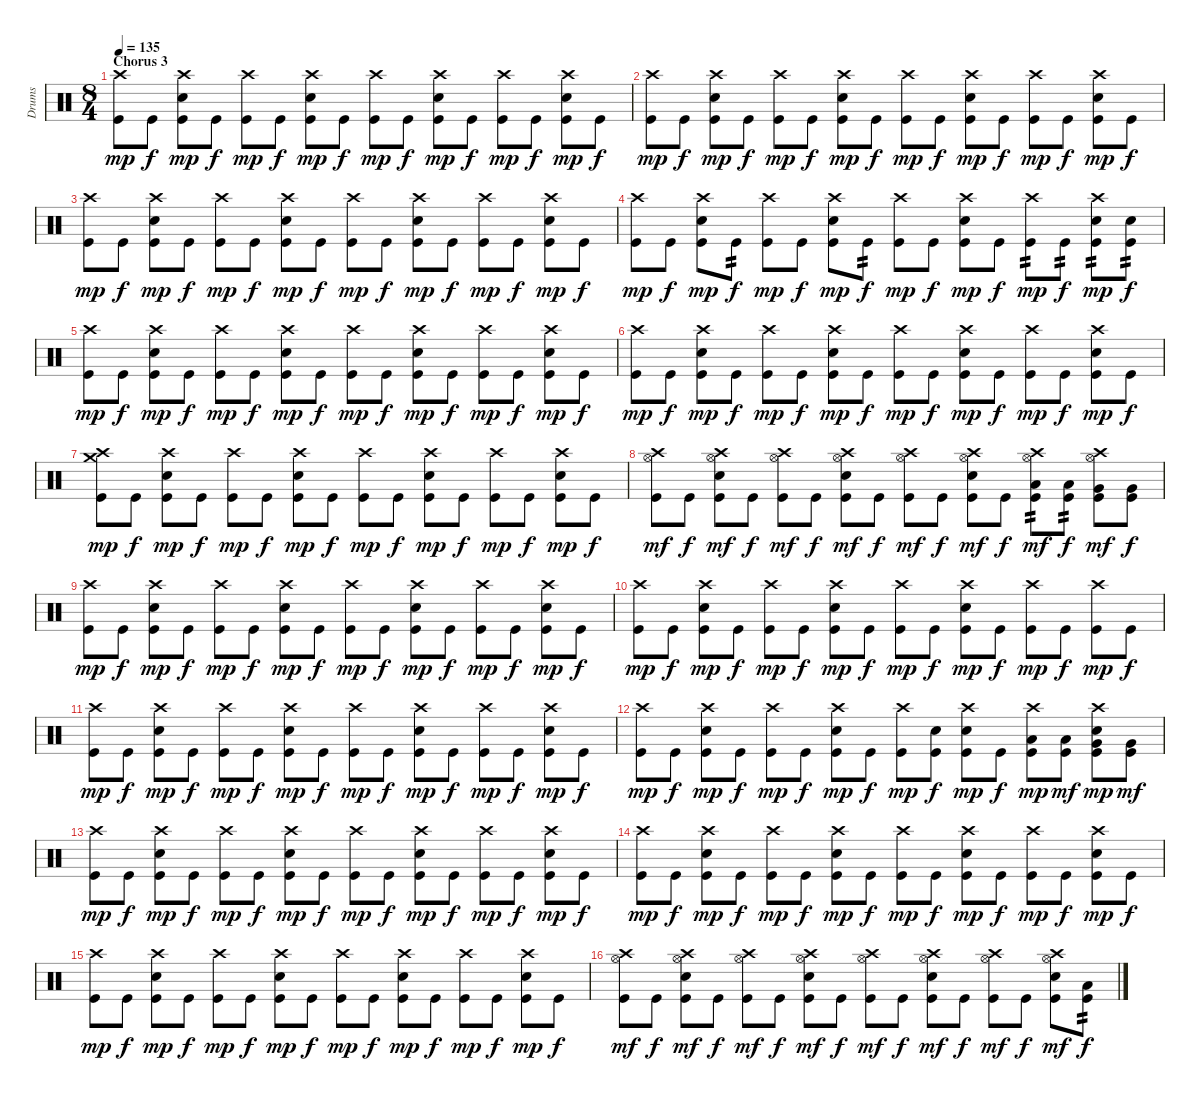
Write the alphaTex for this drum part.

\track ("Drums" "Drums") {instrument percussion}
\staff {score}
\articulation defaults
\ts (8 4)
\section ("" "Chorus 3")
\tempo 135
\clef neutral
\ks c
("Crash high (hit)" "Kick (hit)").8{dy mp} "Kick (hit)".8{dy f} ("Crash high (hit)" "Electric Snare (hit)" "Kick (hit)").8{dy mp} "Kick (hit)".8{dy f} ("Crash high (hit)" "Kick (hit)").8{dy mp} "Kick (hit)".8{dy f} ("Crash high (hit)" "Electric Snare (hit)" "Kick (hit)").8{dy mp} "Kick (hit)".8{dy f} ("Crash high (hit)" "Kick (hit)").8{dy mp} "Kick (hit)".8{dy f} ("Crash high (hit)" "Electric Snare (hit)" "Kick (hit)").8{dy mp} "Kick (hit)".8{dy f} ("Crash high (hit)" "Kick (hit)").8{dy mp} "Kick (hit)".8{dy f} ("Crash high (hit)" "Electric Snare (hit)" "Kick (hit)").8{dy mp} "Kick (hit)".8{dy f} |
("Crash high (hit)" "Kick (hit)").8{dy mp} "Kick (hit)".8{dy f} ("Crash high (hit)" "Electric Snare (hit)" "Kick (hit)").8{dy mp} "Kick (hit)".8{dy f} ("Crash high (hit)" "Kick (hit)").8{dy mp} "Kick (hit)".8{dy f} ("Crash high (hit)" "Electric Snare (hit)" "Kick (hit)").8{dy mp} "Kick (hit)".8{dy f} ("Crash high (hit)" "Kick (hit)").8{dy mp} "Kick (hit)".8{dy f} ("Crash high (hit)" "Electric Snare (hit)" "Kick (hit)").8{dy mp} "Kick (hit)".8{dy f} ("Crash high (hit)" "Kick (hit)").8{dy mp} "Kick (hit)".8{dy f} ("Crash high (hit)" "Electric Snare (hit)" "Kick (hit)").8{dy mp} "Kick (hit)".8{dy f} |
("Crash high (hit)" "Kick (hit)").8{dy mp} "Kick (hit)".8{dy f} ("Crash high (hit)" "Electric Snare (hit)" "Kick (hit)").8{dy mp} "Kick (hit)".8{dy f} ("Crash high (hit)" "Kick (hit)").8{dy mp} "Kick (hit)".8{dy f} ("Crash high (hit)" "Electric Snare (hit)" "Kick (hit)").8{dy mp} "Kick (hit)".8{dy f} ("Crash high (hit)" "Kick (hit)").8{dy mp} "Kick (hit)".8{dy f} ("Crash high (hit)" "Electric Snare (hit)" "Kick (hit)").8{dy mp} "Kick (hit)".8{dy f} ("Crash high (hit)" "Kick (hit)").8{dy mp} "Kick (hit)".8{dy f} ("Crash high (hit)" "Electric Snare (hit)" "Kick (hit)").8{dy mp} "Kick (hit)".8{dy f} |
("Crash high (hit)" "Kick (hit)").8{dy mp} "Kick (hit)".8{dy f} ("Crash high (hit)" "Electric Snare (hit)" "Kick (hit)").8{dy mp} "Kick (hit)".8{tp 2 dy f} ("Crash high (hit)" "Kick (hit)").8{dy mp} "Kick (hit)".8{dy f} ("Crash high (hit)" "Electric Snare (hit)" "Kick (hit)").8{dy mp} "Kick (hit)".8{tp 2 dy f} ("Crash high (hit)" "Kick (hit)").8{dy mp} "Kick (hit)".8{dy f} ("Crash high (hit)" "Electric Snare (hit)" "Kick (hit)").8{dy mp} "Kick (hit)".8{dy f} ("Crash high (hit)" "Kick (hit)").8{tp 2 dy mp} "Kick (hit)".8{tp 2 dy f} ("Crash high (hit)" "Electric Snare (hit)" "Kick (hit)").8{tp 2 dy mp} ("Electric Snare (hit)" "Kick (hit)").8{tp 2 dy f} |
("Crash high (hit)" "Kick (hit)").8{dy mp} "Kick (hit)".8{dy f} ("Crash high (hit)" "Electric Snare (hit)" "Kick (hit)").8{dy mp} "Kick (hit)".8{dy f} ("Crash high (hit)" "Kick (hit)").8{dy mp} "Kick (hit)".8{dy f} ("Crash high (hit)" "Electric Snare (hit)" "Kick (hit)").8{dy mp} "Kick (hit)".8{dy f} ("Crash high (hit)" "Kick (hit)").8{dy mp} "Kick (hit)".8{dy f} ("Crash high (hit)" "Electric Snare (hit)" "Kick (hit)").8{dy mp} "Kick (hit)".8{dy f} ("Crash high (hit)" "Kick (hit)").8{dy mp} "Kick (hit)".8{dy f} ("Crash high (hit)" "Electric Snare (hit)" "Kick (hit)").8{dy mp} "Kick (hit)".8{dy f} |
("Crash high (hit)" "Kick (hit)").8{dy mp} "Kick (hit)".8{dy f} ("Crash high (hit)" "Electric Snare (hit)" "Kick (hit)").8{dy mp} "Kick (hit)".8{dy f} ("Crash high (hit)" "Kick (hit)").8{dy mp} "Kick (hit)".8{dy f} ("Crash high (hit)" "Electric Snare (hit)" "Kick (hit)").8{dy mp} "Kick (hit)".8{dy f} ("Crash high (hit)" "Kick (hit)").8{dy mp} "Kick (hit)".8{dy f} ("Crash high (hit)" "Electric Snare (hit)" "Kick (hit)").8{dy mp} "Kick (hit)".8{dy f} ("Crash high (hit)" "Kick (hit)").8{dy mp} "Kick (hit)".8{dy f} ("Crash high (hit)" "Electric Snare (hit)" "Kick (hit)").8{dy mp} "Kick (hit)".8{dy f} |
("Crash high (hit)" "Crash medium (hit)" "Kick (hit)").8{dy mp} "Kick (hit)".8{dy f} ("Crash high (hit)" "Electric Snare (hit)" "Kick (hit)").8{dy mp} "Kick (hit)".8{dy f} ("Crash high (hit)" "Kick (hit)").8{dy mp} "Kick (hit)".8{dy f} ("Crash high (hit)" "Electric Snare (hit)" "Kick (hit)").8{dy mp} "Kick (hit)".8{dy f} ("Crash high (hit)" "Kick (hit)").8{dy mp} "Kick (hit)".8{dy f} ("Crash high (hit)" "Electric Snare (hit)" "Kick (hit)").8{dy mp} "Kick (hit)".8{dy f} ("Crash high (hit)" "Kick (hit)").8{dy mp} "Kick (hit)".8{dy f} ("Crash high (hit)" "Electric Snare (hit)" "Kick (hit)").8{dy mp} "Kick (hit)".8{dy f} |
("Crash high (hit)" "Hi-Hat (open)" "Kick (hit)").8{dy mf} "Kick (hit)".8{dy f} ("Crash high (hit)" "Hi-Hat (open)" "Electric Snare (hit)" "Kick (hit)").8{dy mf} "Kick (hit)".8{dy f} ("Crash high (hit)" "Hi-Hat (open)" "Kick (hit)").8{dy mf} "Kick (hit)".8{dy f} ("Crash high (hit)" "Hi-Hat (open)" "Electric Snare (hit)" "Kick (hit)").8{dy mf} "Kick (hit)".8{dy f} ("Crash high (hit)" "Hi-Hat (open)" "Kick (hit)").8{dy mf} "Kick (hit)".8{dy f} ("Crash high (hit)" "Hi-Hat (open)" "Electric Snare (hit)" "Kick (hit)").8{dy mf} "Kick (hit)".8{dy f} ("Crash high (hit)" "Hi-Hat (open)" "Low Tom (hit)" "Kick (hit)").8{tp 2 dy mf} ("Low Tom (hit)" "Kick (hit)").8{tp 2 dy f} ("Crash high (hit)" "Hi-Hat (open)" "Very Low Tom (hit)" "Kick (hit)").8{dy mf} ("Very Low Tom (hit)" "Kick (hit)").8{dy f} |
("Crash high (hit)" "Kick (hit)").8{dy mp} "Kick (hit)".8{dy f} ("Crash high (hit)" "Electric Snare (hit)" "Kick (hit)").8{dy mp} "Kick (hit)".8{dy f} ("Crash high (hit)" "Kick (hit)").8{dy mp} "Kick (hit)".8{dy f} ("Crash high (hit)" "Electric Snare (hit)" "Kick (hit)").8{dy mp} "Kick (hit)".8{dy f} ("Crash high (hit)" "Kick (hit)").8{dy mp} "Kick (hit)".8{dy f} ("Crash high (hit)" "Electric Snare (hit)" "Kick (hit)").8{dy mp} "Kick (hit)".8{dy f} ("Crash high (hit)" "Kick (hit)").8{dy mp} "Kick (hit)".8{dy f} ("Crash high (hit)" "Electric Snare (hit)" "Kick (hit)").8{dy mp} "Kick (hit)".8{dy f} |
("Crash high (hit)" "Kick (hit)").8{dy mp} "Kick (hit)".8{dy f} ("Crash high (hit)" "Electric Snare (hit)" "Kick (hit)").8{dy mp} "Kick (hit)".8{dy f} ("Crash high (hit)" "Kick (hit)").8{dy mp} "Kick (hit)".8{dy f} ("Crash high (hit)" "Electric Snare (hit)" "Kick (hit)").8{dy mp} "Kick (hit)".8{dy f} ("Crash high (hit)" "Kick (hit)").8{dy mp} "Kick (hit)".8{dy f} ("Crash high (hit)" "Electric Snare (hit)" "Kick (hit)").8{dy mp} "Kick (hit)".8{dy f} ("Crash high (hit)" "Kick (hit)").8{dy mp} "Kick (hit)".8{dy f} ("Crash high (hit)" "Kick (hit)").8{dy mp} "Kick (hit)".8{dy f} |
("Crash high (hit)" "Kick (hit)").8{dy mp} "Kick (hit)".8{dy f} ("Crash high (hit)" "Electric Snare (hit)" "Kick (hit)").8{dy mp} "Kick (hit)".8{dy f} ("Crash high (hit)" "Kick (hit)").8{dy mp} "Kick (hit)".8{dy f} ("Crash high (hit)" "Electric Snare (hit)" "Kick (hit)").8{dy mp} "Kick (hit)".8{dy f} ("Crash high (hit)" "Kick (hit)").8{dy mp} "Kick (hit)".8{dy f} ("Crash high (hit)" "Electric Snare (hit)" "Kick (hit)").8{dy mp} "Kick (hit)".8{dy f} ("Crash high (hit)" "Kick (hit)").8{dy mp} "Kick (hit)".8{dy f} ("Crash high (hit)" "Electric Snare (hit)" "Kick (hit)").8{dy mp} "Kick (hit)".8{dy f} |
("Crash high (hit)" "Kick (hit)").8{dy mp} "Kick (hit)".8{dy f} ("Crash high (hit)" "Electric Snare (hit)" "Kick (hit)").8{dy mp} "Kick (hit)".8{dy f} ("Crash high (hit)" "Kick (hit)").8{dy mp} "Kick (hit)".8{dy f} ("Crash high (hit)" "Electric Snare (hit)" "Kick (hit)").8{dy mp} "Kick (hit)".8{dy f} ("Crash high (hit)" "Kick (hit)").8{dy mp} ("Electric Snare (hit)" "Kick (hit)").8{dy f} ("Crash high (hit)" "Electric Snare (hit)" "Kick (hit)").8{dy mp} "Kick (hit)".8{dy f} ("Crash high (hit)" "Low Tom (hit)" "Kick (hit)").8{dy mp} ("Low Tom (hit)" "Kick (hit)").8{dy mf} ("Crash high (hit)" "Very Low Tom (hit)" "Electric Snare (hit)" "Kick (hit)").8{dy mp} ("Very Low Tom (hit)" "Kick (hit)").8{dy mf} |
("Crash high (hit)" "Kick (hit)").8{dy mp} "Kick (hit)".8{dy f} ("Crash high (hit)" "Electric Snare (hit)" "Kick (hit)").8{dy mp} "Kick (hit)".8{dy f} ("Crash high (hit)" "Kick (hit)").8{dy mp} "Kick (hit)".8{dy f} ("Crash high (hit)" "Electric Snare (hit)" "Kick (hit)").8{dy mp} "Kick (hit)".8{dy f} ("Crash high (hit)" "Kick (hit)").8{dy mp} "Kick (hit)".8{dy f} ("Crash high (hit)" "Electric Snare (hit)" "Kick (hit)").8{dy mp} "Kick (hit)".8{dy f} ("Crash high (hit)" "Kick (hit)").8{dy mp} "Kick (hit)".8{dy f} ("Crash high (hit)" "Electric Snare (hit)" "Kick (hit)").8{dy mp} "Kick (hit)".8{dy f} |
("Crash high (hit)" "Kick (hit)").8{dy mp} "Kick (hit)".8{dy f} ("Crash high (hit)" "Electric Snare (hit)" "Kick (hit)").8{dy mp} "Kick (hit)".8{dy f} ("Crash high (hit)" "Kick (hit)").8{dy mp} "Kick (hit)".8{dy f} ("Crash high (hit)" "Electric Snare (hit)" "Kick (hit)").8{dy mp} "Kick (hit)".8{dy f} ("Crash high (hit)" "Kick (hit)").8{dy mp} "Kick (hit)".8{dy f} ("Crash high (hit)" "Electric Snare (hit)" "Kick (hit)").8{dy mp} "Kick (hit)".8{dy f} ("Crash high (hit)" "Kick (hit)").8{dy mp} "Kick (hit)".8{dy f} ("Crash high (hit)" "Electric Snare (hit)" "Kick (hit)").8{dy mp} "Kick (hit)".8{dy f} |
("Crash high (hit)" "Kick (hit)").8{dy mp} "Kick (hit)".8{dy f} ("Crash high (hit)" "Electric Snare (hit)" "Kick (hit)").8{dy mp} "Kick (hit)".8{dy f} ("Crash high (hit)" "Kick (hit)").8{dy mp} "Kick (hit)".8{dy f} ("Crash high (hit)" "Electric Snare (hit)" "Kick (hit)").8{dy mp} "Kick (hit)".8{dy f} ("Crash high (hit)" "Kick (hit)").8{dy mp} "Kick (hit)".8{dy f} ("Crash high (hit)" "Electric Snare (hit)" "Kick (hit)").8{dy mp} "Kick (hit)".8{dy f} ("Crash high (hit)" "Kick (hit)").8{dy mp} "Kick (hit)".8{dy f} ("Crash high (hit)" "Electric Snare (hit)" "Kick (hit)").8{dy mp} "Kick (hit)".8{dy f} |
("Crash high (hit)" "Hi-Hat (open)" "Kick (hit)").8{dy mf} "Kick (hit)".8{dy f} ("Crash high (hit)" "Hi-Hat (open)" "Electric Snare (hit)" "Kick (hit)").8{dy mf} "Kick (hit)".8{dy f} ("Crash high (hit)" "Hi-Hat (open)" "Kick (hit)").8{dy mf} "Kick (hit)".8{dy f} ("Crash high (hit)" "Hi-Hat (open)" "Electric Snare (hit)" "Kick (hit)").8{dy mf} "Kick (hit)".8{dy f} ("Crash high (hit)" "Hi-Hat (open)" "Kick (hit)").8{dy mf} "Kick (hit)".8{dy f} ("Crash high (hit)" "Hi-Hat (open)" "Electric Snare (hit)" "Kick (hit)").8{dy mf} "Kick (hit)".8{dy f} ("Crash high (hit)" "Hi-Hat (open)" "Kick (hit)").8{dy mf} "Kick (hit)".8{dy f} ("Crash high (hit)" "Hi-Hat (open)" "Electric Snare (hit)" "Kick (hit)").8{dy mf} ("Low Tom (hit)" "Kick (hit)").8{tp 2 dy f}
